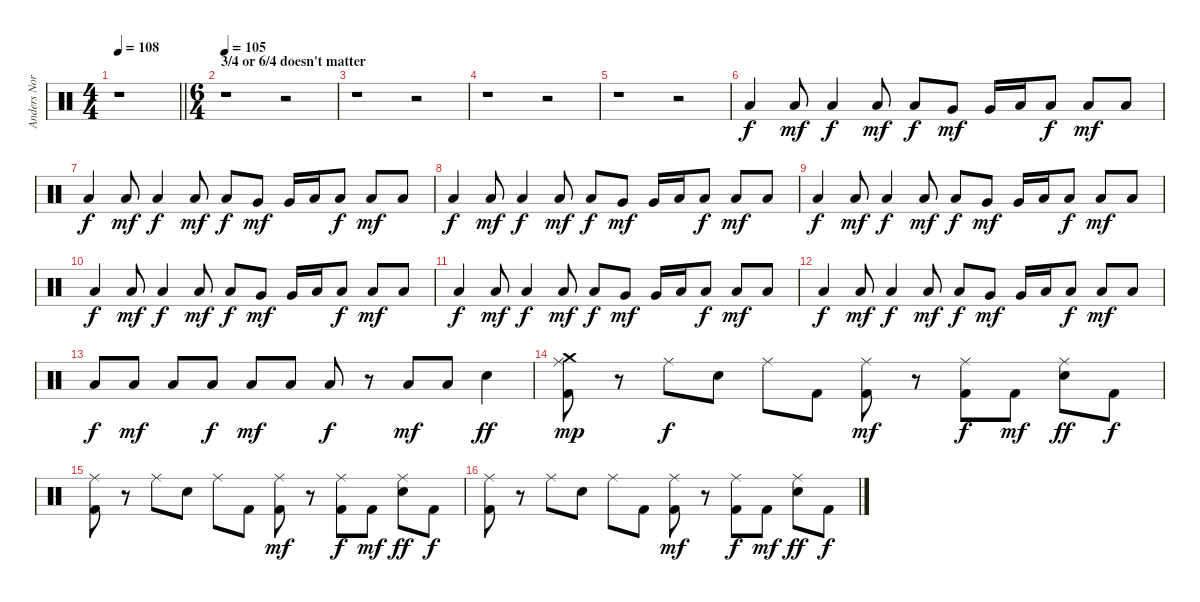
\track ("Anders Nordin" "Anders Nor") {instrument percussion}
\staff {score}
\articulation defaults
\ts (4 4)
\tempo 108
\clef neutral
\barLineRight lightlight
\ks c
r.1{dy f} |
\ts (6 4)
\section ("" "3/4 or 6/4 doesn't matter")
\tempo 105
r.1 r.2 |
r.1 r.2 |
r.1 r.2 |
r.1 r.2 |
"Low Floor Tom (hit)".4{volume 16} "Low Floor Tom (hit)".8{dy mf} "Low Floor Tom (hit)".4{dy f} "Low Floor Tom (hit)".8{dy mf} "Low Floor Tom (hit)".8{dy f} "Very Low Tom (hit)".8{dy mf} "Very Low Tom (hit)".16 "Low Floor Tom (hit)".16 "Low Floor Tom (hit)".8{dy f} "Low Floor Tom (hit)".8{dy mf} "Low Floor Tom (hit)".8 |
"Low Floor Tom (hit)".4{dy f} "Low Floor Tom (hit)".8{dy mf} "Low Floor Tom (hit)".4{dy f} "Low Floor Tom (hit)".8{dy mf} "Low Floor Tom (hit)".8{dy f} "Very Low Tom (hit)".8{dy mf} "Very Low Tom (hit)".16 "Low Floor Tom (hit)".16 "Low Floor Tom (hit)".8{dy f} "Low Floor Tom (hit)".8{dy mf} "Low Floor Tom (hit)".8 |
"Low Floor Tom (hit)".4{dy f} "Low Floor Tom (hit)".8{dy mf} "Low Floor Tom (hit)".4{dy f} "Low Floor Tom (hit)".8{dy mf} "Low Floor Tom (hit)".8{dy f} "Very Low Tom (hit)".8{dy mf} "Very Low Tom (hit)".16 "Low Floor Tom (hit)".16 "Low Floor Tom (hit)".8{dy f} "Low Floor Tom (hit)".8{dy mf} "Low Floor Tom (hit)".8 |
"Low Floor Tom (hit)".4{dy f} "Low Floor Tom (hit)".8{dy mf} "Low Floor Tom (hit)".4{dy f} "Low Floor Tom (hit)".8{dy mf} "Low Floor Tom (hit)".8{dy f} "Very Low Tom (hit)".8{dy mf} "Very Low Tom (hit)".16 "Low Floor Tom (hit)".16 "Low Floor Tom (hit)".8{dy f} "Low Floor Tom (hit)".8{dy mf} "Low Floor Tom (hit)".8 |
"Low Floor Tom (hit)".4{dy f} "Low Floor Tom (hit)".8{dy mf} "Low Floor Tom (hit)".4{dy f} "Low Floor Tom (hit)".8{dy mf} "Low Floor Tom (hit)".8{dy f} "Very Low Tom (hit)".8{dy mf} "Very Low Tom (hit)".16 "Low Floor Tom (hit)".16 "Low Floor Tom (hit)".8{dy f} "Low Floor Tom (hit)".8{dy mf} "Low Floor Tom (hit)".8 |
"Low Floor Tom (hit)".4{dy f} "Low Floor Tom (hit)".8{dy mf} "Low Floor Tom (hit)".4{dy f} "Low Floor Tom (hit)".8{dy mf} "Low Floor Tom (hit)".8{dy f} "Very Low Tom (hit)".8{dy mf} "Very Low Tom (hit)".16 "Low Floor Tom (hit)".16 "Low Floor Tom (hit)".8{dy f} "Low Floor Tom (hit)".8{dy mf} "Low Floor Tom (hit)".8 |
"Low Floor Tom (hit)".4{dy f} "Low Floor Tom (hit)".8{dy mf} "Low Floor Tom (hit)".4{dy f} "Low Floor Tom (hit)".8{dy mf} "Low Floor Tom (hit)".8{dy f} "Very Low Tom (hit)".8{dy mf} "Very Low Tom (hit)".16 "Low Floor Tom (hit)".16 "Low Floor Tom (hit)".8{dy f} "Low Floor Tom (hit)".8{dy mf} "Low Floor Tom (hit)".8 |
"Low Floor Tom (hit)".8{dy f} "Low Floor Tom (hit)".8{dy mf} "Low Floor Tom (hit)".8 "Low Floor Tom (hit)".8{dy f} "Low Floor Tom (hit)".8{dy mf} "Low Floor Tom (hit)".8 "Low Floor Tom (hit)".8{dy f} r.8 "Low Floor Tom (hit)".8{dy mf} "Low Floor Tom (hit)".8 "Snare (hit) 2".4{dy ff} |
("Ride (middle)" "Crash medium (hit)" "Kick (hit) 2").8{dy mp} r.8 "Ride (middle)".8{dy f} "Electric Snare (hit)".8 "Ride (middle)".8 "Kick (hit) 2".8 ("Ride (middle)" "Kick (hit) 2").8{dy mf} r.8 ("Ride (middle)" "Kick (hit) 2").8{dy f} "Kick (hit) 2".8{dy mf} ("Ride (middle)" "Snare (hit) 2").8{dy ff} "Kick (hit) 2".8{dy f} |
("Ride (middle)" "Kick (hit) 2").8 r.8 "Ride (middle)".8 "Electric Snare (hit)".8 "Ride (middle)".8 "Kick (hit) 2".8 ("Ride (middle)" "Kick (hit) 2").8{dy mf} r.8 ("Ride (middle)" "Kick (hit) 2").8{dy f} "Kick (hit) 2".8{dy mf} ("Ride (middle)" "Snare (hit) 2").8{dy ff} "Kick (hit) 2".8{dy f} |
("Ride (middle)" "Kick (hit) 2").8 r.8 "Ride (middle)".8 "Electric Snare (hit)".8 "Ride (middle)".8 "Kick (hit) 2".8 ("Ride (middle)" "Kick (hit) 2").8{dy mf} r.8 ("Ride (middle)" "Kick (hit) 2").8{dy f} "Kick (hit) 2".8{dy mf} ("Ride (middle)" "Snare (hit) 2").8{dy ff} "Kick (hit) 2".8{dy f}
